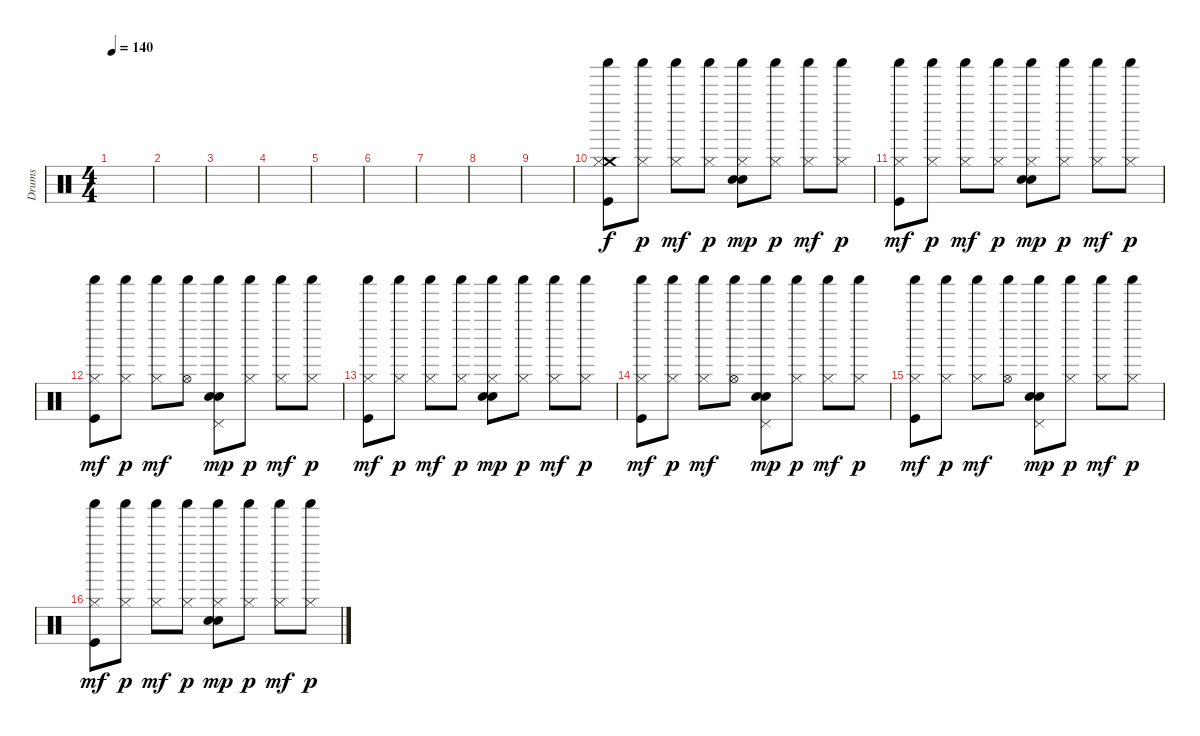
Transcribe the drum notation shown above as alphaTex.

\track ("Drums" "Drums") {instrument percussion}
\staff {score}
\articulation defaults
\ts (4 4)
\tempo 140
\clef neutral
\ks c
|
|
|
|
|
|
|
|
|
("Crash medium (hit)" "Shaker (hit)" "Hi-Hat (closed)" "Kick (hit)").8 ("Shaker (hit)" "Hi-Hat (closed)").8{dy p} ("Shaker (hit)" "Hi-Hat (closed)").8{dy mf} ("Shaker (hit)" "Hi-Hat (closed)").8{dy p} ("Shaker (hit)" "Hi-Hat (closed)" "Hand Clap (hit)" "Snare (hit) 2").8{dy mp} ("Shaker (hit)" "Hi-Hat (closed)").8{dy p} ("Shaker (hit)" "Hi-Hat (closed)").8{dy mf} ("Shaker (hit)" "Hi-Hat (closed)").8{dy p} |
("Shaker (hit)" "Hi-Hat (closed)" "Kick (hit)").8{dy mf} ("Shaker (hit)" "Hi-Hat (closed)").8{dy p} ("Shaker (hit)" "Hi-Hat (closed)").8{dy mf} ("Shaker (hit)" "Hi-Hat (closed)").8{dy p} ("Shaker (hit)" "Hi-Hat (closed)" "Hand Clap (hit)" "Snare (hit) 2").8{dy mp} ("Shaker (hit)" "Hi-Hat (closed)").8{dy p} ("Shaker (hit)" "Hi-Hat (closed)").8{dy mf} ("Shaker (hit)" "Hi-Hat (closed)").8{dy p} |
("Shaker (hit)" "Hi-Hat (closed)" "Kick (hit)").8{dy mf} ("Shaker (hit)" "Hi-Hat (closed)").8{dy p} ("Shaker (hit)" "Hi-Hat (closed)").8{dy mf} ("Shaker (hit)" "Hi-Hat (open)").8 ("Shaker (hit)" "Pedal Hi-Hat (hit)" "Hand Clap (hit)" "Snare (hit) 2").8{dy mp} ("Shaker (hit)" "Hi-Hat (closed)").8{dy p} ("Shaker (hit)" "Hi-Hat (closed)").8{dy mf} ("Shaker (hit)" "Hi-Hat (closed)").8{dy p} |
("Shaker (hit)" "Hi-Hat (closed)" "Kick (hit)").8{dy mf} ("Shaker (hit)" "Hi-Hat (closed)").8{dy p} ("Shaker (hit)" "Hi-Hat (closed)").8{dy mf} ("Shaker (hit)" "Hi-Hat (closed)").8{dy p} ("Shaker (hit)" "Hi-Hat (closed)" "Hand Clap (hit)" "Snare (hit) 2").8{dy mp} ("Shaker (hit)" "Hi-Hat (closed)").8{dy p} ("Shaker (hit)" "Hi-Hat (closed)").8{dy mf} ("Shaker (hit)" "Hi-Hat (closed)").8{dy p} |
("Shaker (hit)" "Hi-Hat (closed)" "Kick (hit)").8{dy mf} ("Shaker (hit)" "Hi-Hat (closed)").8{dy p} ("Shaker (hit)" "Hi-Hat (closed)").8{dy mf} ("Shaker (hit)" "Hi-Hat (open)").8 ("Shaker (hit)" "Pedal Hi-Hat (hit)" "Hand Clap (hit)" "Snare (hit) 2").8{dy mp} ("Shaker (hit)" "Hi-Hat (closed)").8{dy p} ("Shaker (hit)" "Hi-Hat (closed)").8{dy mf} ("Shaker (hit)" "Hi-Hat (closed)").8{dy p} |
("Shaker (hit)" "Hi-Hat (closed)" "Kick (hit)").8{dy mf} ("Shaker (hit)" "Hi-Hat (closed)").8{dy p} ("Shaker (hit)" "Hi-Hat (closed)").8{dy mf} ("Shaker (hit)" "Hi-Hat (open)").8 ("Shaker (hit)" "Pedal Hi-Hat (hit)" "Hand Clap (hit)" "Snare (hit) 2").8{dy mp} ("Shaker (hit)" "Hi-Hat (closed)").8{dy p} ("Shaker (hit)" "Hi-Hat (closed)").8{dy mf} ("Shaker (hit)" "Hi-Hat (closed)").8{dy p} |
("Shaker (hit)" "Hi-Hat (closed)" "Kick (hit)").8{dy mf} ("Shaker (hit)" "Hi-Hat (closed)").8{dy p} ("Shaker (hit)" "Hi-Hat (closed)").8{dy mf} ("Shaker (hit)" "Hi-Hat (closed)").8{dy p} ("Shaker (hit)" "Hi-Hat (closed)" "Hand Clap (hit)" "Snare (hit) 2").8{dy mp} ("Shaker (hit)" "Hi-Hat (closed)").8{dy p} ("Shaker (hit)" "Hi-Hat (closed)").8{dy mf} ("Shaker (hit)" "Hi-Hat (closed)").8{dy p}
